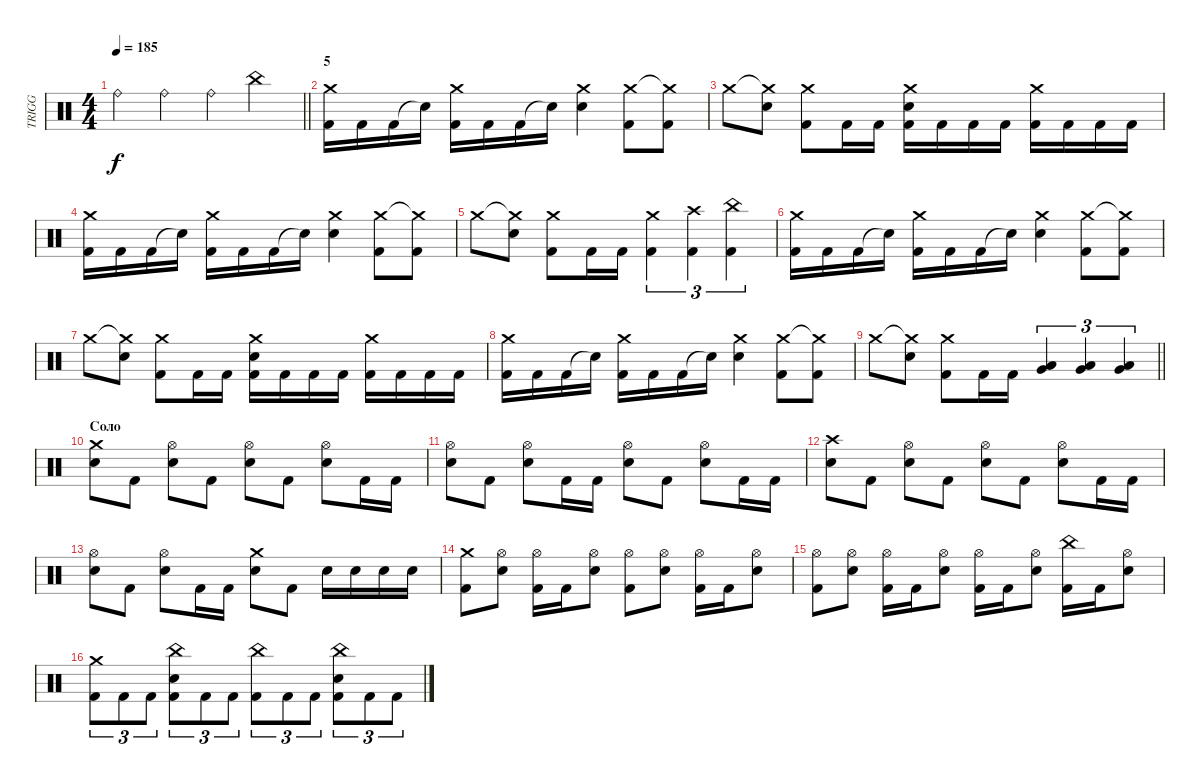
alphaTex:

\track ("TRIGG" "TRIGG") {instrument percussion}
\staff {score}
\articulation defaults
\ts (4 4)
\tempo 185
\clef neutral
\barLineRight lightlight
\ks c "Ride (bell)".4{dy f} "Ride (bell)".4 "Ride (bell)".4 "China (hit)".4
|
\section ("" "5")
("Crash medium (hit)" "Kick (hit) 2").16 "Kick (hit) 2".16 "Kick (hit) 2".16 "Snare (hit)"{t}.16 ("Crash medium (hit)" "Kick (hit) 2").16 "Kick (hit) 2".16 "Kick (hit) 2".16 "Snare (hit)"{t}.16 ("Crash medium (hit)" "Electric Snare (hit)").4 ("Crash medium (hit)" "Kick (hit) 2").8 ("Crash medium (hit)"{t} "Kick (hit) 2").8 |
"Crash medium (hit)".8 ("Crash medium (hit)"{t} "Electric Snare (hit)").8 ("Crash medium (hit)" "Kick (hit) 2").8 "Kick (hit) 2".16 "Kick (hit) 2".16 ("Crash medium (hit)" "Electric Snare (hit)" "Kick (hit) 2").16 "Kick (hit) 2".16 "Kick (hit) 2".16 "Kick (hit) 2".16 ("Crash medium (hit)" "Kick (hit) 2").16 "Kick (hit) 2".16 "Kick (hit) 2".16 "Kick (hit) 2".16 |
("Crash medium (hit)" "Kick (hit) 2").16 "Kick (hit) 2".16 "Kick (hit) 2".16 "Snare (hit)"{t}.16 ("Crash medium (hit)" "Kick (hit) 2").16 "Kick (hit) 2".16 "Kick (hit) 2".16 "Snare (hit)"{t}.16 ("Crash medium (hit)" "Electric Snare (hit)").4 ("Crash medium (hit)" "Kick (hit) 2").8 ("Crash medium (hit)"{t} "Kick (hit) 2").8 |
"Crash medium (hit)".8 ("Crash medium (hit)"{t} "Electric Snare (hit)").8 ("Crash medium (hit)" "Kick (hit) 2").8 "Kick (hit) 2".16 "Kick (hit) 2".16 ("Crash medium (hit)" "Kick (hit) 2").4{tu (3 2)} ("Crash high (hit)" "Kick (hit) 2").4{tu (3 2)} ("China (hit)" "Kick (hit) 2").4{tu (3 2)} |
("Crash medium (hit)" "Kick (hit) 2").16 "Kick (hit) 2".16 "Kick (hit) 2".16 "Snare (hit)"{t}.16 ("Crash medium (hit)" "Kick (hit) 2").16 "Kick (hit) 2".16 "Kick (hit) 2".16 "Snare (hit)"{t}.16 ("Crash medium (hit)" "Electric Snare (hit)").4 ("Crash medium (hit)" "Kick (hit) 2").8 ("Crash medium (hit)"{t} "Kick (hit) 2").8 |
"Crash medium (hit)".8 ("Crash medium (hit)"{t} "Electric Snare (hit)").8 ("Crash medium (hit)" "Kick (hit) 2").8 "Kick (hit) 2".16 "Kick (hit) 2".16 ("Crash medium (hit)" "Electric Snare (hit)" "Kick (hit) 2").16 "Kick (hit) 2".16 "Kick (hit) 2".16 "Kick (hit) 2".16 ("Crash medium (hit)" "Kick (hit) 2").16 "Kick (hit) 2".16 "Kick (hit) 2".16 "Kick (hit) 2".16 |
("Crash medium (hit)" "Kick (hit) 2").16 "Kick (hit) 2".16 "Kick (hit) 2".16 "Snare (hit)"{t}.16 ("Crash medium (hit)" "Kick (hit) 2").16 "Kick (hit) 2".16 "Kick (hit) 2".16 "Snare (hit)"{t}.16 ("Crash medium (hit)" "Electric Snare (hit)").4 ("Crash medium (hit)" "Kick (hit) 2").8 ("Crash medium (hit)"{t} "Kick (hit) 2").8 |
\barLineRight lightlight "Crash medium (hit)".8
("Crash medium (hit)"{t} "Electric Snare (hit)").8 ("Crash medium (hit)" "Kick (hit) 2").8 "Kick (hit) 2".16 "Kick (hit) 2".16 ("Very Low Tom (hit)" "Low Floor Tom (hit)").4{tu (3 2)} ("Very Low Tom (hit)" "Low Floor Tom (hit)").4{tu (3 2)} ("Very Low Tom (hit)" "Low Floor Tom (hit)").4{tu (3 2)} |
\section ("" "Соло")
("Crash medium (hit)" "Electric Snare (hit)").8 "Kick (hit) 2".8 ("Hi-Hat (open)" "Electric Snare (hit)").8 "Kick (hit) 2".8 ("Hi-Hat (open)" "Electric Snare (hit)").8 "Kick (hit) 2".8 ("Hi-Hat (open)" "Electric Snare (hit)").8 "Kick (hit) 2".16 "Kick (hit) 2".16 |
("Hi-Hat (open)" "Electric Snare (hit)").8 "Kick (hit) 2".8 ("Hi-Hat (open)" "Electric Snare (hit)").8 "Kick (hit) 2".16 "Kick (hit) 2".16 ("Hi-Hat (open)" "Electric Snare (hit)").8 "Kick (hit) 2".8 ("Hi-Hat (open)" "Electric Snare (hit)").8 "Kick (hit) 2".16 "Kick (hit) 2".16 |
("Crash high (hit)" "Electric Snare (hit)").8 "Kick (hit) 2".8 ("Hi-Hat (open)" "Electric Snare (hit)").8 "Kick (hit) 2".8 ("Hi-Hat (open)" "Electric Snare (hit)").8 "Kick (hit) 2".8 ("Hi-Hat (open)" "Electric Snare (hit)").8 "Kick (hit) 2".16 "Kick (hit) 2".16 |
("Hi-Hat (open)" "Electric Snare (hit)").8 "Kick (hit) 2".8 ("Hi-Hat (open)" "Electric Snare (hit)").8 "Kick (hit) 2".16 "Kick (hit) 2".16 ("Crash medium (hit)" "Electric Snare (hit)").8 "Kick (hit) 2".8 "Electric Snare (hit)".16 "Electric Snare (hit)".16 "Electric Snare (hit)".16 "Electric Snare (hit)".16 |
("Crash medium (hit)" "Kick (hit) 2").8 ("Hi-Hat (open)" "Electric Snare (hit)").8 ("Hi-Hat (open)" "Kick (hit) 2").16 "Kick (hit) 2".16 ("Hi-Hat (open)" "Electric Snare (hit)").8 ("Hi-Hat (open)" "Kick (hit) 2").8 ("Hi-Hat (open)" "Electric Snare (hit)").8 ("Hi-Hat (open)" "Kick (hit) 2").16 "Kick (hit) 2".16 ("Hi-Hat (open)" "Electric Snare (hit)").8 |
("Hi-Hat (open)" "Kick (hit) 2").8 ("Hi-Hat (open)" "Electric Snare (hit)").8 ("Hi-Hat (open)" "Kick (hit) 2").16 "Kick (hit) 2".16 ("Hi-Hat (open)" "Electric Snare (hit)").8 ("Hi-Hat (open)" "Kick (hit) 2").16 "Kick (hit) 2".16 ("Hi-Hat (open)" "Electric Snare (hit)").8 ("China (hit)" "Kick (hit) 2").16 "Kick (hit) 2".16 ("Hi-Hat (open)" "Electric Snare (hit)").8 |
("Crash medium (hit)" "Kick (hit) 2").8{tu (3 2)} "Kick (hit) 2".8{tu (3 2)} "Kick (hit) 2".8{tu (3 2)} ("China (hit)" "Electric Snare (hit)" "Kick (hit) 2").8{tu (3 2)} "Kick (hit) 2".8{tu (3 2)} "Kick (hit) 2".8{tu (3 2)} ("China (hit)" "Kick (hit) 2").8{tu (3 2)} "Kick (hit) 2".8{tu (3 2)} "Kick (hit) 2".8{tu (3 2)} ("China (hit)" "Electric Snare (hit)" "Kick (hit) 2").8{tu (3 2)} "Kick (hit) 2".8{tu (3 2)} "Kick (hit) 2".8{tu (3 2)}
